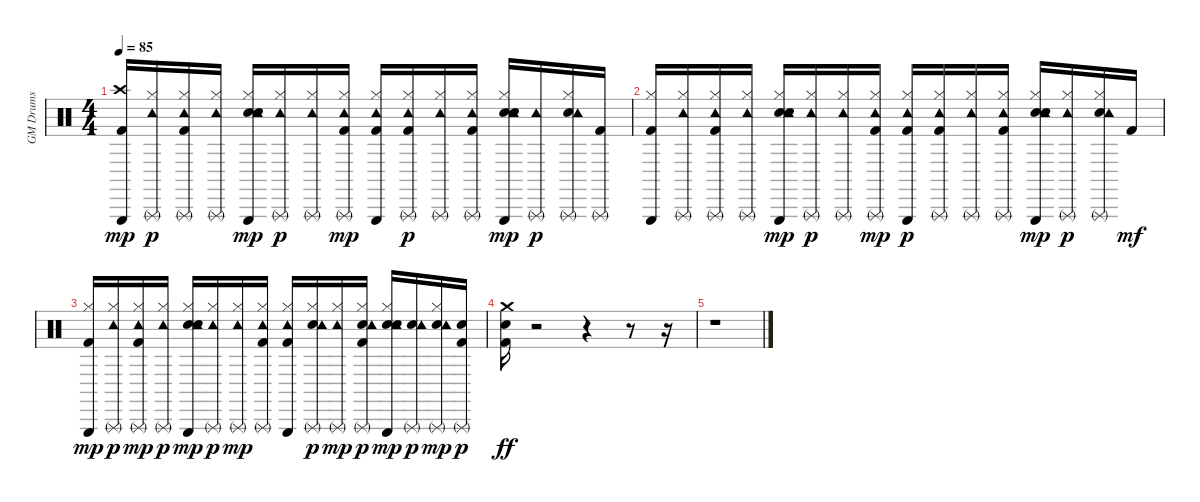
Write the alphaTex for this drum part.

\track ("GM Drums" "GM Drums") {instrument percussion}
\staff {score}
\articulation defaults
\ts (4 4)
\tempo 85
\clef neutral
\ks c
("Kick (hit) 2" "Crash high (hit)" "Triangle (hit)").16{dy mp} ("Hi-Hat (closed)" "Tambourine (hit)" "Triangle (rnute)").16{dy p} ("Kick (hit) 2" "Hi-Hat (closed)" "Tambourine (hit)" "Triangle (rnute)").16 ("Hi-Hat (closed)" "Tambourine (hit)" "Triangle (rnute)").16 ("Snare (hit) 2" "Hand Clap (hit)" "Hi-Hat (closed)" "Tambourine (hit)" "Triangle (hit)").16{dy mp} ("Hi-Hat (closed)" "Tambourine (hit)" "Triangle (rnute)").16{dy p} ("Hi-Hat (closed)" "Tambourine (hit)" "Triangle (rnute)").16 ("Kick (hit) 2" "Hi-Hat (closed)" "Tambourine (hit)" "Triangle (rnute)").16{dy mp} ("Kick (hit) 2" "Hi-Hat (closed)" "Tambourine (hit)" "Triangle (hit)").16 ("Kick (hit) 2" "Hi-Hat (closed)" "Tambourine (hit)" "Triangle (rnute)").16{dy p} ("Hi-Hat (closed)" "Tambourine (hit)" "Triangle (rnute)").16 ("Kick (hit) 2" "Hi-Hat (closed)" "Tambourine (hit)" "Triangle (rnute)").16 ("Snare (hit) 2" "Hand Clap (hit)" "Hi-Hat (closed)" "Tambourine (hit)" "Triangle (hit)").16{dy mp} ("Tambourine (hit)" "Triangle (rnute)").16{dy p} ("Snare (hit) 2" "Hi-Hat (closed)" "Tambourine (hit)" "Triangle (rnute)").16 ("Kick (hit) 2" "Triangle (rnute)").16 |
("Kick (hit) 2" "Hi-Hat (closed)" "Triangle (hit)").16 ("Hi-Hat (closed)" "Tambourine (hit)" "Triangle (rnute)").16 ("Kick (hit) 2" "Hi-Hat (closed)" "Tambourine (hit)" "Triangle (rnute)").16 ("Hi-Hat (closed)" "Tambourine (hit)" "Triangle (rnute)").16 ("Snare (hit) 2" "Hand Clap (hit)" "Hi-Hat (closed)" "Tambourine (hit)" "Triangle (hit)").16{dy mp} ("Hi-Hat (closed)" "Tambourine (hit)" "Triangle (rnute)").16{dy p} ("Hi-Hat (closed)" "Tambourine (hit)" "Triangle (rnute)").16 ("Kick (hit) 2" "Hi-Hat (closed)" "Tambourine (hit)" "Triangle (rnute)").16{dy mp} ("Kick (hit) 2" "Hi-Hat (closed)" "Tambourine (hit)" "Triangle (hit)").16{dy p} ("Kick (hit) 2" "Hi-Hat (closed)" "Tambourine (hit)" "Triangle (rnute)").16 ("Hi-Hat (closed)" "Tambourine (hit)" "Triangle (rnute)").16 ("Kick (hit) 2" "Hi-Hat (closed)" "Tambourine (hit)" "Triangle (rnute)").16 ("Snare (hit) 2" "Hand Clap (hit)" "Hi-Hat (closed)" "Tambourine (hit)" "Triangle (hit)").16{dy mp} ("Hi-Hat (closed)" "Tambourine (hit)" "Triangle (rnute)").16{dy p} ("Snare (hit) 2" "Hi-Hat (closed)" "Tambourine (hit)" "Triangle (rnute)").16 "Kick (hit) 2".16{dy mf} |
("Kick (hit) 2" "Hi-Hat (closed)" "Triangle (hit)").16{dy mp} ("Hi-Hat (closed)" "Tambourine (hit)" "Triangle (rnute)").16{dy p} ("Kick (hit) 2" "Hi-Hat (closed)" "Tambourine (hit)" "Triangle (rnute)").16{dy mp} ("Hi-Hat (closed)" "Tambourine (hit)" "Triangle (rnute)").16{dy p} ("Snare (hit) 2" "Hand Clap (hit)" "Hi-Hat (closed)" "Tambourine (hit)" "Triangle (hit)").16{dy mp} ("Hi-Hat (closed)" "Tambourine (hit)" "Triangle (rnute)").16{dy p} ("Hi-Hat (closed)" "Tambourine (hit)" "Triangle (rnute)").16{dy mp} ("Kick (hit) 2" "Hi-Hat (closed)" "Tambourine (hit)" "Triangle (rnute)").16 ("Kick (hit) 2" "Hi-Hat (closed)" "Tambourine (hit)" "Triangle (hit)").16 ("Snare (hit) 2" "Hi-Hat (closed)" "Tambourine (hit)" "Triangle (rnute)").16{dy p} ("Hi-Hat (closed)" "Tambourine (hit)" "Triangle (rnute)").16{dy mp} ("Kick (hit) 2" "Snare (hit) 2" "Hi-Hat (closed)" "Tambourine (hit)" "Triangle (rnute)").16{dy p} ("Snare (hit) 2" "Hand Clap (hit)" "Hi-Hat (closed)" "Tambourine (hit)" "Triangle (hit)").16{dy mp} ("Snare (hit) 2" "Tambourine (hit)" "Triangle (rnute)").16{dy p} ("Snare (hit) 2" "Hi-Hat (closed)" "Tambourine (hit)" "Triangle (rnute)").16{dy mp} ("Kick (hit) 2" "Snare (hit) 2" "Triangle (rnute)").16{dy p} |
("Kick (hit) 2" "Snare (hit) 2" "Crash medium (hit)").16{dy ff} r.2 r.4 r.8 r.16 |
r.1
